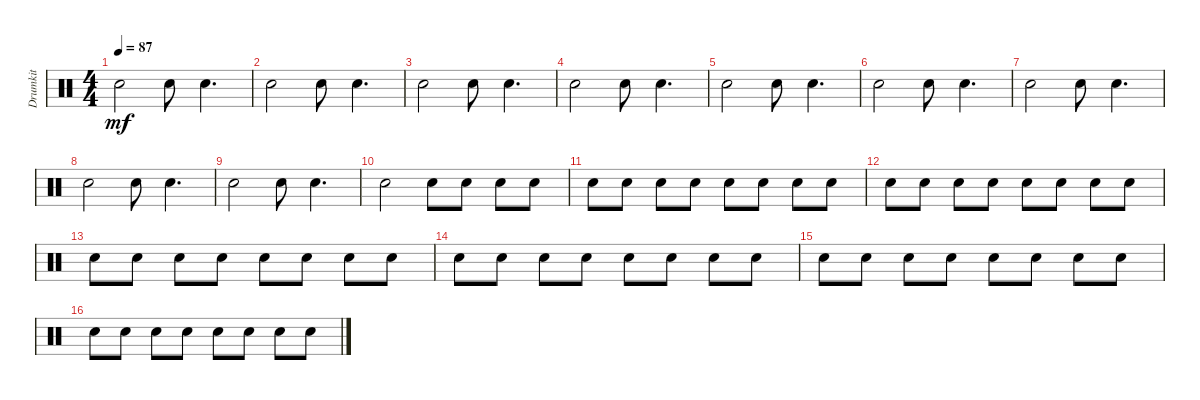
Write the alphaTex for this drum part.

\track ("Drumkit" "Drumkit") {instrument percussion}
\staff {score}
\articulation defaults
\ts (4 4)
\tempo 87
\clef neutral
\ks c "Snare (hit)".2{dy mf} "Snare (hit)".8 "Snare (hit)".4{d}
|
"Snare (hit)".2 "Snare (hit)".8 "Snare (hit)".4{d} |
"Snare (hit)".2 "Snare (hit)".8 "Snare (hit)".4{d} |
"Snare (hit)".2 "Snare (hit)".8 "Snare (hit)".4{d} |
"Snare (hit)".2 "Snare (hit)".8 "Snare (hit)".4{d} |
"Snare (hit)".2 "Snare (hit)".8 "Snare (hit)".4{d} |
"Snare (hit)".2 "Snare (hit)".8 "Snare (hit)".4{d} |
"Snare (hit)".2 "Snare (hit)".8 "Snare (hit)".4{d} |
"Snare (hit)".2 "Snare (hit)".8 "Snare (hit)".4{d} |
"Snare (hit)".2 "Snare (hit)".8 "Snare (hit)".8 "Snare (hit)".8 "Snare (hit)".8 |
"Snare (hit)".8 "Snare (hit)".8 "Snare (hit)".8 "Snare (hit)".8 "Snare (hit)".8 "Snare (hit)".8 "Snare (hit)".8 "Snare (hit)".8 |
"Snare (hit)".8 "Snare (hit)".8 "Snare (hit)".8 "Snare (hit)".8 "Snare (hit)".8 "Snare (hit)".8 "Snare (hit)".8 "Snare (hit)".8 |
"Snare (hit)".8 "Snare (hit)".8 "Snare (hit)".8 "Snare (hit)".8 "Snare (hit)".8 "Snare (hit)".8 "Snare (hit)".8 "Snare (hit)".8 |
"Snare (hit)".8 "Snare (hit)".8 "Snare (hit)".8 "Snare (hit)".8 "Snare (hit)".8 "Snare (hit)".8 "Snare (hit)".8 "Snare (hit)".8 |
"Snare (hit)".8 "Snare (hit)".8 "Snare (hit)".8 "Snare (hit)".8 "Snare (hit)".8 "Snare (hit)".8 "Snare (hit)".8 "Snare (hit)".8 |
"Snare (hit)".8 "Snare (hit)".8 "Snare (hit)".8 "Snare (hit)".8 "Snare (hit)".8 "Snare (hit)".8 "Snare (hit)".8 "Snare (hit)".8
